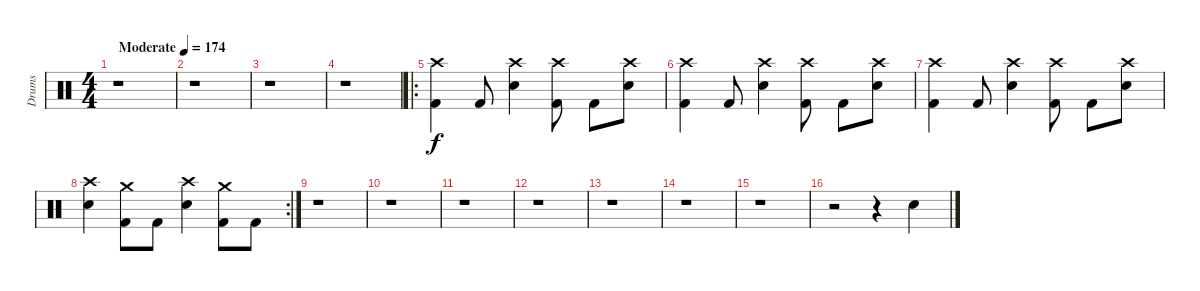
\track ("Drums" "Drums") {instrument percussion}
\staff {score}
\articulation defaults
\ts (4 4)
\tempo (174 "Moderate")
\clef neutral
\ks c
r.1{dy f} |
r.1 |
r.1 |
r.1 |
\ro
("Crash high (hit)" "Kick (hit) 2").4 "Kick (hit) 2".8 ("Crash high (hit)" "Snare (hit) 2").4 ("Crash high (hit)" "Kick (hit) 2").8 "Kick (hit) 2".8 ("Crash high (hit)" "Snare (hit) 2").8 |
("Crash high (hit)" "Kick (hit) 2").4 "Kick (hit) 2".8 ("Crash high (hit)" "Snare (hit) 2").4 ("Crash high (hit)" "Kick (hit) 2").8 "Kick (hit) 2".8 ("Crash high (hit)" "Snare (hit) 2").8 |
("Crash high (hit)" "Kick (hit) 2").4 "Kick (hit) 2".8 ("Crash high (hit)" "Snare (hit) 2").4 ("Crash high (hit)" "Kick (hit) 2").8 "Kick (hit) 2".8 ("Crash high (hit)" "Snare (hit) 2").8 |
\rc 2
("Crash high (hit)" "Snare (hit) 2").4 ("Crash medium (hit)" "Kick (hit) 2").8 "Kick (hit) 2".8 ("Crash high (hit)" "Snare (hit) 2").4 ("Crash medium (hit)" "Kick (hit) 2").8 "Kick (hit) 2".8 |
r.1 |
r.1 |
r.1 |
r.1 |
r.1 |
r.1 |
r.1 |
r.2 r.4 "Snare (hit) 2".4
